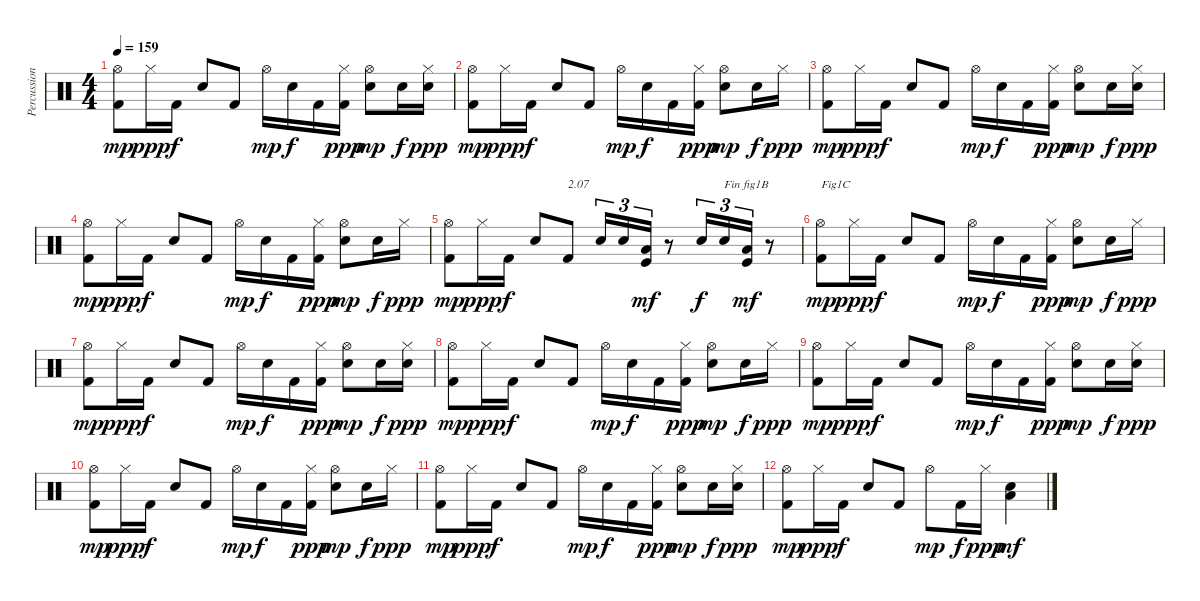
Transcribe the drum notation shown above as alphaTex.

\track ("Percussions" "Percussion") {instrument percussion}
\staff {score}
\articulation defaults
\ts (4 4)
\tempo 159
\clef neutral
\ks c
("Kick (hit) 2" "Hi-Hat (open)").8{dy mp} "Hi-Hat (closed)".16{dy ppp} "Kick (hit) 2".16{dy f} "Electric Snare (hit)".8 "Kick (hit) 2".8 "Hi-Hat (open)".16{dy mp} "Electric Snare (hit)".16{dy f} "Kick (hit) 2".16 ("Kick (hit) 2" "Hi-Hat (closed)").16{dy ppp} ("Electric Snare (hit)" "Hi-Hat (open)").8{dy mp} "Electric Snare (hit)".16{dy f} ("Electric Snare (hit)" "Hi-Hat (closed)").16{dy ppp} |
("Kick (hit) 2" "Hi-Hat (open)").8{dy mp} "Hi-Hat (closed)".16{dy ppp} "Kick (hit) 2".16{dy f} "Electric Snare (hit)".8 "Kick (hit) 2".8 "Hi-Hat (open)".16{dy mp} "Electric Snare (hit)".16{dy f} "Kick (hit) 2".16 ("Kick (hit) 2" "Hi-Hat (closed)").16{dy ppp} ("Electric Snare (hit)" "Hi-Hat (open)").8{dy mp} "Electric Snare (hit)".16{dy f} "Hi-Hat (closed)".16{dy ppp} |
("Kick (hit) 2" "Hi-Hat (open)").8{dy mp} "Hi-Hat (closed)".16{dy ppp} "Kick (hit) 2".16{dy f} "Electric Snare (hit)".8 "Kick (hit) 2".8 "Hi-Hat (open)".16{dy mp} "Electric Snare (hit)".16{dy f} "Kick (hit) 2".16 ("Kick (hit) 2" "Hi-Hat (closed)").16{dy ppp} ("Electric Snare (hit)" "Hi-Hat (open)").8{dy mp} "Electric Snare (hit)".16{dy f} ("Electric Snare (hit)" "Hi-Hat (closed)").16{dy ppp} |
("Kick (hit) 2" "Hi-Hat (open)").8{dy mp} "Hi-Hat (closed)".16{dy ppp} "Kick (hit) 2".16{dy f} "Electric Snare (hit)".8 "Kick (hit) 2".8 "Hi-Hat (open)".16{dy mp} "Electric Snare (hit)".16{dy f} "Kick (hit) 2".16 ("Kick (hit) 2" "Hi-Hat (closed)").16{dy ppp} ("Electric Snare (hit)" "Hi-Hat (open)").8{dy mp} "Electric Snare (hit)".16{dy f} "Hi-Hat (closed)".16{dy ppp} |
("Kick (hit) 2" "Hi-Hat (open)").8{dy mp} "Hi-Hat (closed)".16{dy ppp} "Kick (hit) 2".16{dy f} "Electric Snare (hit)".8 "Kick (hit) 2".8{txt "2.07"} "Electric Snare (hit)".16{tu (3 2)} "Electric Snare (hit)".16{tu (3 2)} ("Kick (hit)" "Low Floor Tom (hit)").16{tu (3 2) dy mf} r.8 "Electric Snare (hit)".16{tu (3 2) dy f} "Electric Snare (hit)".16{tu (3 2) txt "Fin fig1B"} ("Kick (hit)" "Low Floor Tom (hit)").16{tu (3 2) dy mf} r.8 |
("Kick (hit) 2" "Hi-Hat (open)").8{txt "Fig1C" dy mp} "Hi-Hat (closed)".16{dy ppp} "Kick (hit) 2".16{dy f} "Electric Snare (hit)".8 "Kick (hit) 2".8 "Hi-Hat (open)".16{dy mp} "Electric Snare (hit)".16{dy f} "Kick (hit) 2".16 ("Kick (hit) 2" "Hi-Hat (closed)").16{dy ppp} ("Electric Snare (hit)" "Hi-Hat (open)").8{dy mp} "Electric Snare (hit)".16{dy f} "Hi-Hat (closed)".16{dy ppp} |
("Kick (hit) 2" "Hi-Hat (open)").8{dy mp} "Hi-Hat (closed)".16{dy ppp} "Kick (hit) 2".16{dy f} "Electric Snare (hit)".8 "Kick (hit) 2".8 "Hi-Hat (open)".16{dy mp} "Electric Snare (hit)".16{dy f} "Kick (hit) 2".16 ("Kick (hit) 2" "Hi-Hat (closed)").16{dy ppp} ("Electric Snare (hit)" "Hi-Hat (open)").8{dy mp} "Electric Snare (hit)".16{dy f} ("Electric Snare (hit)" "Hi-Hat (closed)").16{dy ppp} |
("Kick (hit) 2" "Hi-Hat (open)").8{dy mp} "Hi-Hat (closed)".16{dy ppp} "Kick (hit) 2".16{dy f} "Electric Snare (hit)".8 "Kick (hit) 2".8 "Hi-Hat (open)".16{dy mp} "Electric Snare (hit)".16{dy f} "Kick (hit) 2".16 ("Kick (hit) 2" "Hi-Hat (closed)").16{dy ppp} ("Electric Snare (hit)" "Hi-Hat (open)").8{dy mp} "Electric Snare (hit)".16{dy f} "Hi-Hat (closed)".16{dy ppp} |
("Kick (hit) 2" "Hi-Hat (open)").8{dy mp} "Hi-Hat (closed)".16{dy ppp} "Kick (hit) 2".16{dy f} "Electric Snare (hit)".8 "Kick (hit) 2".8 "Hi-Hat (open)".16{dy mp} "Electric Snare (hit)".16{dy f} "Kick (hit) 2".16 ("Kick (hit) 2" "Hi-Hat (closed)").16{dy ppp} ("Electric Snare (hit)" "Hi-Hat (open)").8{dy mp} "Electric Snare (hit)".16{dy f} ("Electric Snare (hit)" "Hi-Hat (closed)").16{dy ppp} |
("Kick (hit) 2" "Hi-Hat (open)").8{dy mp} "Hi-Hat (closed)".16{dy ppp} "Kick (hit) 2".16{dy f} "Electric Snare (hit)".8 "Kick (hit) 2".8 "Hi-Hat (open)".16{dy mp} "Electric Snare (hit)".16{dy f} "Kick (hit) 2".16 ("Kick (hit) 2" "Hi-Hat (closed)").16{dy ppp} ("Electric Snare (hit)" "Hi-Hat (open)").8{dy mp} "Electric Snare (hit)".16{dy f} "Hi-Hat (closed)".16{dy ppp} |
("Kick (hit) 2" "Hi-Hat (open)").8{dy mp} "Hi-Hat (closed)".16{dy ppp} "Kick (hit) 2".16{dy f} "Electric Snare (hit)".8 "Kick (hit) 2".8 "Hi-Hat (open)".16{dy mp} "Electric Snare (hit)".16{dy f} "Kick (hit) 2".16 ("Kick (hit) 2" "Hi-Hat (closed)").16{dy ppp} ("Electric Snare (hit)" "Hi-Hat (open)").8{dy mp} "Electric Snare (hit)".16{dy f} ("Electric Snare (hit)" "Hi-Hat (closed)").16{dy ppp} |
("Kick (hit) 2" "Hi-Hat (open)").8{dy mp} "Hi-Hat (closed)".16{dy ppp} "Kick (hit) 2".16{dy f} "Electric Snare (hit)".8 "Kick (hit) 2".8 "Hi-Hat (open)".8{dy mp} "Kick (hit) 2".16{dy f} "Hi-Hat (closed)".16{dy ppp} ("Electric Snare (hit)" "Low Floor Tom (hit)").4{dy mf}
